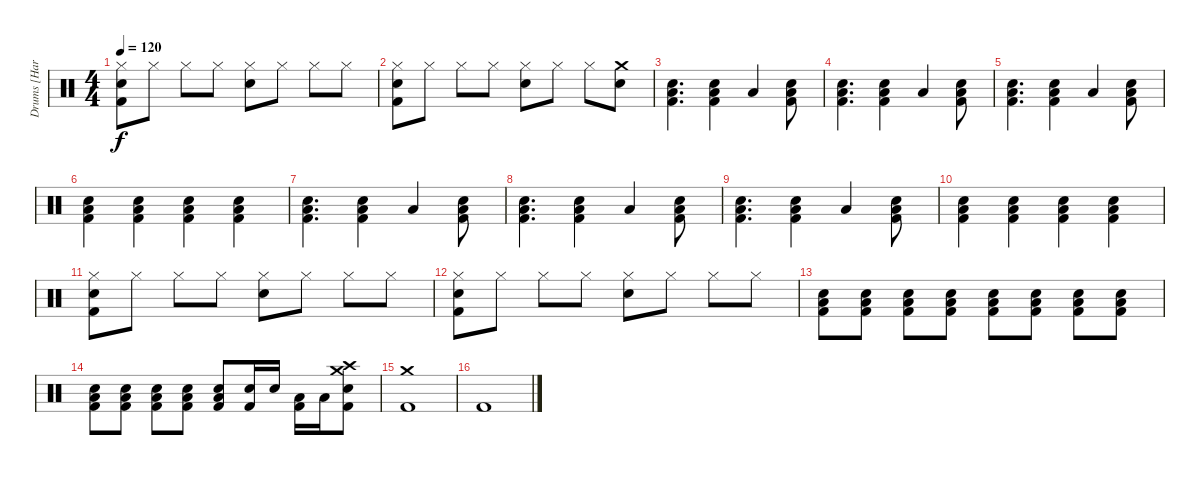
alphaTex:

\track ("Drums [Harry]" "Drums [Har") {instrument percussion}
\staff {score}
\articulation defaults
\ts (4 4)
\tempo 120
\clef neutral
\ks c
("Snare (hit) 2" "Hi-Hat (closed)" "Kick (hit) 2").8{dy f} "Hi-Hat (closed)".8 "Hi-Hat (closed)".8 "Hi-Hat (closed)".8 ("Snare (hit) 2" "Hi-Hat (closed)").8 "Hi-Hat (closed)".8 "Hi-Hat (closed)".8 "Hi-Hat (closed)".8 |
("Snare (hit) 2" "Hi-Hat (closed)" "Kick (hit) 2").8 "Hi-Hat (closed)".8 "Hi-Hat (closed)".8 "Hi-Hat (closed)".8 ("Snare (hit) 2" "Hi-Hat (closed)").8 "Hi-Hat (closed)".8 "Hi-Hat (closed)".8 ("Crash medium (hit)" "Snare (hit) 2").8 |
("Snare (hit) 2" "Low Floor Tom (hit)" "Kick (hit) 2").4{d} ("Snare (hit) 2" "Low Floor Tom (hit)" "Kick (hit) 2").4 "Low Floor Tom (hit)".4 ("Snare (hit) 2" "Low Floor Tom (hit)" "Kick (hit) 2").8 |
("Snare (hit) 2" "Low Floor Tom (hit)" "Kick (hit) 2").4{d} ("Snare (hit) 2" "Low Floor Tom (hit)" "Kick (hit) 2").4 "Low Floor Tom (hit)".4 ("Snare (hit) 2" "Low Floor Tom (hit)" "Kick (hit) 2").8 |
("Snare (hit) 2" "Low Floor Tom (hit)" "Kick (hit) 2").4{d} ("Snare (hit) 2" "Low Floor Tom (hit)" "Kick (hit) 2").4 "Low Floor Tom (hit)".4 ("Snare (hit) 2" "Low Floor Tom (hit)" "Kick (hit) 2").8 |
("Snare (hit) 2" "Low Floor Tom (hit)" "Kick (hit) 2").4 ("Snare (hit) 2" "Low Floor Tom (hit)" "Kick (hit) 2").4 ("Snare (hit) 2" "Low Floor Tom (hit)" "Kick (hit) 2").4 ("Snare (hit) 2" "Low Floor Tom (hit)" "Kick (hit) 2").4 |
("Snare (hit) 2" "Low Floor Tom (hit)" "Kick (hit) 2").4{d} ("Snare (hit) 2" "Low Floor Tom (hit)" "Kick (hit) 2").4 "Low Floor Tom (hit)".4 ("Snare (hit) 2" "Low Floor Tom (hit)" "Kick (hit) 2").8 |
("Snare (hit) 2" "Low Floor Tom (hit)" "Kick (hit) 2").4{d} ("Snare (hit) 2" "Low Floor Tom (hit)" "Kick (hit) 2").4 "Low Floor Tom (hit)".4 ("Snare (hit) 2" "Low Floor Tom (hit)" "Kick (hit) 2").8 |
("Snare (hit) 2" "Low Floor Tom (hit)" "Kick (hit) 2").4{d} ("Snare (hit) 2" "Low Floor Tom (hit)" "Kick (hit) 2").4 "Low Floor Tom (hit)".4 ("Snare (hit) 2" "Low Floor Tom (hit)" "Kick (hit) 2").8 |
("Snare (hit) 2" "Low Floor Tom (hit)" "Kick (hit) 2").4 ("Snare (hit) 2" "Low Floor Tom (hit)" "Kick (hit) 2").4 ("Snare (hit) 2" "Low Floor Tom (hit)" "Kick (hit) 2").4 ("Snare (hit) 2" "Low Floor Tom (hit)" "Kick (hit) 2").4 |
("Snare (hit) 2" "Hi-Hat (closed)" "Kick (hit) 2").8 "Hi-Hat (closed)".8 "Hi-Hat (closed)".8 "Hi-Hat (closed)".8 ("Snare (hit) 2" "Hi-Hat (closed)").8 "Hi-Hat (closed)".8 "Hi-Hat (closed)".8 "Hi-Hat (closed)".8 |
("Snare (hit) 2" "Hi-Hat (closed)" "Kick (hit) 2").8 "Hi-Hat (closed)".8 "Hi-Hat (closed)".8 "Hi-Hat (closed)".8 ("Snare (hit) 2" "Hi-Hat (closed)").8 "Hi-Hat (closed)".8 "Hi-Hat (closed)".8 "Hi-Hat (closed)".8 |
("Snare (hit) 2" "Low Floor Tom (hit)" "Kick (hit) 2").8 ("Snare (hit) 2" "Low Floor Tom (hit)" "Kick (hit) 2").8 ("Snare (hit) 2" "Low Floor Tom (hit)" "Kick (hit) 2").8 ("Snare (hit) 2" "Low Floor Tom (hit)" "Kick (hit) 2").8 ("Snare (hit) 2" "Low Floor Tom (hit)" "Kick (hit) 2").8 ("Snare (hit) 2" "Low Floor Tom (hit)" "Kick (hit) 2").8 ("Snare (hit) 2" "Low Floor Tom (hit)" "Kick (hit) 2").8 ("Snare (hit) 2" "Low Floor Tom (hit)" "Kick (hit) 2").8 |
("Snare (hit) 2" "Low Floor Tom (hit)" "Kick (hit) 2").8 ("Snare (hit) 2" "Low Floor Tom (hit)" "Kick (hit) 2").8 ("Snare (hit) 2" "Low Floor Tom (hit)" "Kick (hit) 2").8 ("Snare (hit) 2" "Low Floor Tom (hit)" "Kick (hit) 2").8 ("Snare (hit) 2" "Low Floor Tom (hit)" "Kick (hit) 2").8 ("Snare (hit) 2" "Kick (hit) 2").16 "Snare (hit) 2".16 ("Low Tom (hit)" "Kick (hit) 2").16 "Low Tom (hit)".16 ("Crash medium (hit)" "Crash high (hit)" "Snare (hit) 2" "Kick (hit) 2").8 |
("Crash medium (hit)" "Kick (hit) 2").1 |
"Kick (hit) 2".1
